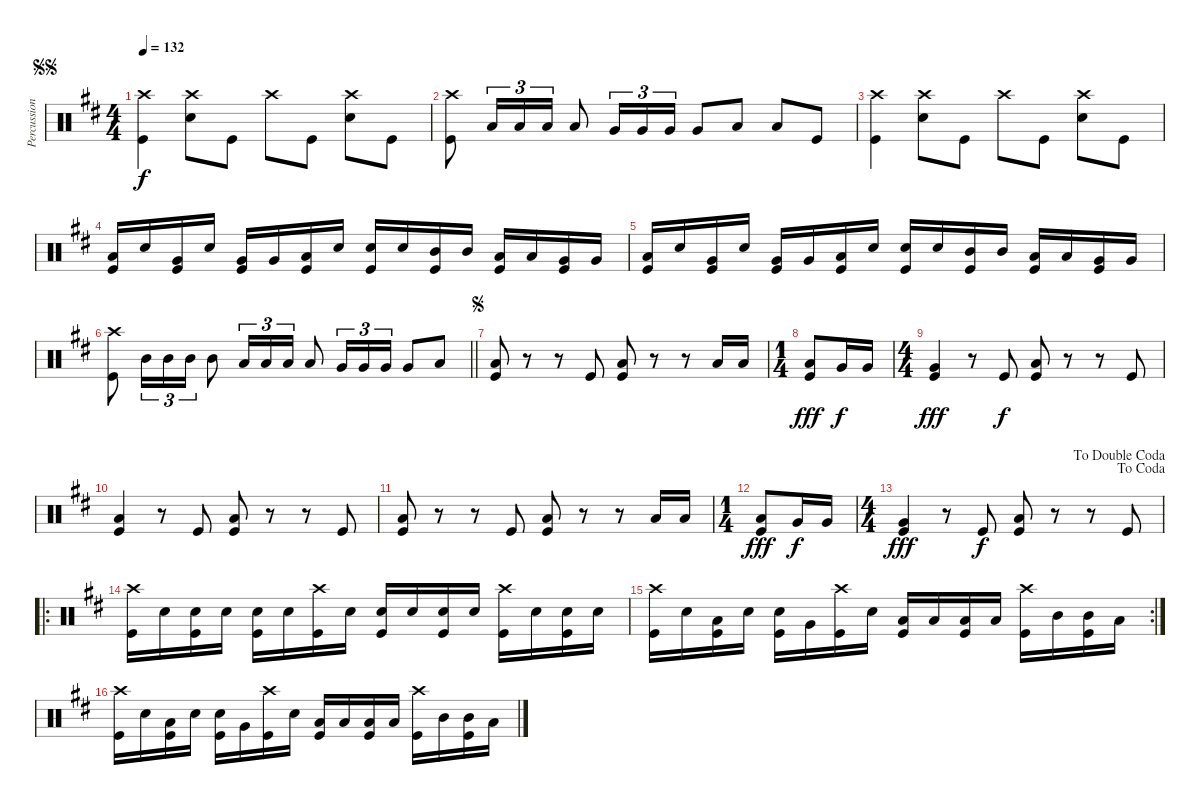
\track ("Percussion" "Percussion") {instrument percussion}
\staff {score}
\articulation defaults
\ts (4 4)
\jump segnosegno
\tempo 132
\clef neutral
\ks d
("Crash high (hit)" "Kick (hit)").4{dy f} ("Crash high (hit)" "Snare (hit) 2").8 "Kick (hit)".8 "Crash high (hit)".8 "Kick (hit)".8 ("Crash high (hit)" "Snare (hit) 2").8 "Kick (hit)".8 |
("Crash high (hit)" "Kick (hit)").8 "Low Tom (hit)".16{tu (3 2)} "Low Tom (hit)".16{tu (3 2)} "Low Tom (hit)".16{tu (3 2)} "Low Tom (hit)".8 "Very Low Tom (hit)".16{tu (3 2)} "Very Low Tom (hit)".16{tu (3 2)} "Very Low Tom (hit)".16{tu (3 2)} "Very Low Tom (hit)".8 "Low Floor Tom (hit)".8 "Low Floor Tom (hit)".8 "Kick (hit)".8 |
("Crash high (hit)" "Kick (hit)").4 ("Crash high (hit)" "Snare (hit) 2").8 "Kick (hit)".8 "Crash high (hit)".8 "Kick (hit)".8 ("Crash high (hit)" "Snare (hit) 2").8 "Kick (hit)".8 |
("Low Tom (hit)" "Kick (hit)").16 "Snare (hit) 2".16 ("Very Low Tom (hit)" "Kick (hit)").16 "Snare (hit) 2".16 ("Very Low Tom (hit)" "Kick (hit)").16 "Very Low Tom (hit)".16 ("Low Floor Tom (hit)" "Kick (hit)").16 "Snare (hit) 2".16 ("Snare (hit) 2" "Kick (hit)").16 "Snare (hit) 2".16 ("Mid Tom (hit)" "Kick (hit)").16 "Mid Tom (hit)".16 ("Low Tom (hit)" "Kick (hit)").16 "Low Tom (hit)".16 ("Very Low Tom (hit)" "Kick (hit)").16 "Very Low Tom (hit)".16 |
("Low Tom (hit)" "Kick (hit)").16 "Snare (hit) 2".16 ("Very Low Tom (hit)" "Kick (hit)").16 "Snare (hit) 2".16 ("Very Low Tom (hit)" "Kick (hit)").16 "Very Low Tom (hit)".16 ("Low Floor Tom (hit)" "Kick (hit)").16 "Snare (hit) 2".16 ("Snare (hit) 2" "Kick (hit)").16 "Snare (hit) 2".16 ("Mid Tom (hit)" "Kick (hit)").16 "Mid Tom (hit)".16 ("Low Tom (hit)" "Kick (hit)").16 "Low Tom (hit)".16 ("Very Low Tom (hit)" "Kick (hit)").16 "Very Low Tom (hit)".16 |
\barLineRight lightlight
("Crash high (hit)" "Kick (hit)").8 "Mid Tom (hit)".16{tu (3 2)} "Mid Tom (hit)".16{tu (3 2)} "Mid Tom (hit)".16{tu (3 2)} "Mid Tom (hit)".8 "Low Tom (hit)".16{tu (3 2)} "Low Tom (hit)".16{tu (3 2)} "Low Tom (hit)".16{tu (3 2)} "Low Tom (hit)".8 "Very Low Tom (hit)".16{tu (3 2)} "Very Low Tom (hit)".16{tu (3 2)} "Very Low Tom (hit)".16{tu (3 2)} "Very Low Tom (hit)".8 "Low Floor Tom (hit)".8 |
\jump segno
("Low Floor Tom (hit)" "Kick (hit)").8 r.8 r.8 "Kick (hit)".8 ("Low Floor Tom (hit)" "Kick (hit)").8 r.8 r.8 "Low Tom (hit)".16 "Low Tom (hit)".16 |
\ts (1 4)
("Low Tom (hit)" "Kick (hit)").8{dy fff} "Very Low Tom (hit)".16{dy f} "Very Low Tom (hit)".16 |
\ts (4 4)
("Very Low Tom (hit)" "Kick (hit)").4{dy fff} r.8 "Kick (hit)".8{dy f} ("Low Floor Tom (hit)" "Kick (hit)").8 r.8 r.8 "Kick (hit)".8 |
("Low Floor Tom (hit)" "Kick (hit)").4 r.8 "Kick (hit)".8 ("Low Floor Tom (hit)" "Kick (hit)").8 r.8 r.8 "Kick (hit)".8 |
("Low Floor Tom (hit)" "Kick (hit)").8 r.8 r.8 "Kick (hit)".8 ("Low Floor Tom (hit)" "Kick (hit)").8 r.8 r.8 "Low Tom (hit)".16 "Low Tom (hit)".16 |
\ts (1 4)
("Low Tom (hit)" "Kick (hit)").8{dy fff} "Very Low Tom (hit)".16{dy f} "Very Low Tom (hit)".16 |
\ts (4 4)
\jump dacoda
\jump dadoublecoda
("Very Low Tom (hit)" "Kick (hit)").4{dy fff} r.8 "Kick (hit)".8{dy f} ("Low Floor Tom (hit)" "Kick (hit)").8 r.8 r.8 "Kick (hit)".8 |
\ro
("Crash high (hit)" "Kick (hit)").16 "Snare (hit) 2".16 ("Snare (hit) 2" "Kick (hit)").16 "Snare (hit) 2".16 ("Snare (hit) 2" "Kick (hit)").16 "Snare (hit) 2".16 ("Crash high (hit)" "Kick (hit)").16 "Snare (hit) 2".16 ("Snare (hit) 2" "Kick (hit)").16 "Snare (hit) 2".16 ("Snare (hit) 2" "Kick (hit)").16 "Snare (hit) 2".16 ("Crash high (hit)" "Kick (hit)").16 "Snare (hit) 2".16 ("Snare (hit) 2" "Kick (hit)").16 "Snare (hit) 2".16 |
\rc 2
("Crash high (hit)" "Kick (hit)").16 "Snare (hit) 2".16 ("Low Tom (hit)" "Kick (hit)").16 "Snare (hit) 2".16 ("Snare (hit) 2" "Kick (hit)").16 "Very Low Tom (hit)".16 ("Crash high (hit)" "Kick (hit)").16 "Snare (hit) 2".16 ("Low Tom (hit)" "Kick (hit)").16 "Low Tom (hit)".16 ("Low Floor Tom (hit)" "Kick (hit)").16 "Low Floor Tom (hit)".16 ("Crash high (hit)" "Kick (hit)").16 "Mid Tom (hit)".16 ("Mid Tom (hit)" "Kick (hit)").16 "Low Tom (hit)".16 |
("Crash high (hit)" "Kick (hit)").16 "Snare (hit) 2".16 ("Low Tom (hit)" "Kick (hit)").16 "Snare (hit) 2".16 ("Snare (hit) 2" "Kick (hit)").16 "Very Low Tom (hit)".16 ("Crash high (hit)" "Kick (hit)").16 "Snare (hit) 2".16 ("Low Tom (hit)" "Kick (hit)").16 "Low Tom (hit)".16 ("Low Floor Tom (hit)" "Kick (hit)").16 "Low Floor Tom (hit)".16 ("Crash high (hit)" "Kick (hit)").16 "Mid Tom (hit)".16 ("Mid Tom (hit)" "Kick (hit)").16 "Low Tom (hit)".16
